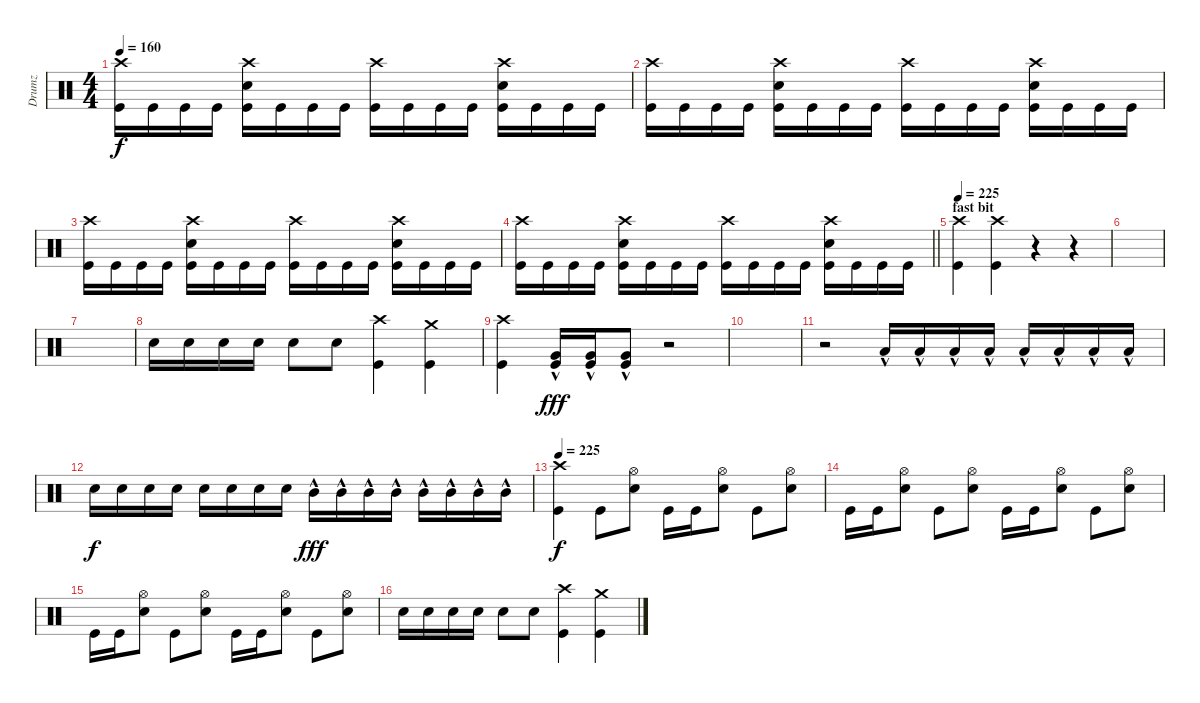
\track ("Drumz" "Drumz") {instrument percussion}
\staff {score}
\articulation defaults
\ts (4 4)
\tempo 160
\clef neutral
\ks c
("Crash high (hit)" "Kick (hit)").16{dy f} "Kick (hit)".16 "Kick (hit)".16 "Kick (hit)".16 ("Crash high (hit)" "Electric Snare (hit)" "Kick (hit)").16 "Kick (hit)".16 "Kick (hit)".16 "Kick (hit)".16 ("Crash high (hit)" "Kick (hit)").16 "Kick (hit)".16 "Kick (hit)".16 "Kick (hit)".16 ("Crash high (hit)" "Electric Snare (hit)" "Kick (hit)").16 "Kick (hit)".16 "Kick (hit)".16 "Kick (hit)".16 |
("Crash high (hit)" "Kick (hit)").16 "Kick (hit)".16 "Kick (hit)".16 "Kick (hit)".16 ("Crash high (hit)" "Electric Snare (hit)" "Kick (hit)").16 "Kick (hit)".16 "Kick (hit)".16 "Kick (hit)".16 ("Crash high (hit)" "Kick (hit)").16 "Kick (hit)".16 "Kick (hit)".16 "Kick (hit)".16 ("Crash high (hit)" "Electric Snare (hit)" "Kick (hit)").16 "Kick (hit)".16 "Kick (hit)".16 "Kick (hit)".16 |
("Crash high (hit)" "Kick (hit)").16 "Kick (hit)".16 "Kick (hit)".16 "Kick (hit)".16 ("Crash high (hit)" "Electric Snare (hit)" "Kick (hit)").16 "Kick (hit)".16 "Kick (hit)".16 "Kick (hit)".16 ("Crash high (hit)" "Kick (hit)").16 "Kick (hit)".16 "Kick (hit)".16 "Kick (hit)".16 ("Crash high (hit)" "Electric Snare (hit)" "Kick (hit)").16 "Kick (hit)".16 "Kick (hit)".16 "Kick (hit)".16 |
\barLineRight lightlight
("Crash high (hit)" "Kick (hit)").16 "Kick (hit)".16 "Kick (hit)".16 "Kick (hit)".16 ("Crash high (hit)" "Electric Snare (hit)" "Kick (hit)").16 "Kick (hit)".16 "Kick (hit)".16 "Kick (hit)".16 ("Crash high (hit)" "Kick (hit)").16 "Kick (hit)".16 "Kick (hit)".16 "Kick (hit)".16 ("Crash high (hit)" "Electric Snare (hit)" "Kick (hit)").16 "Kick (hit)".16 "Kick (hit)".16 "Kick (hit)".16 |
\section ("" "fast bit")
\tempo 225
("Crash high (hit)" "Kick (hit)").4 ("Crash high (hit)" "Kick (hit)").4 r.4{volume 0} r.4 |
|
|
"Electric Snare (hit)".16{volume 13} "Electric Snare (hit)".16 "Electric Snare (hit)".16 "Electric Snare (hit)".16 "Electric Snare (hit)".8 "Electric Snare (hit)".8 ("Crash high (hit)" "Kick (hit)").4 ("Crash medium (hit)" "Kick (hit)").4 |
("Crash high (hit)" "Kick (hit)").4 ("Very Low Tom (hit)"{hac} "Kick (hit)").16{dy fff} ("Very Low Tom (hit)"{hac} "Kick (hit)").16 ("Very Low Tom (hit)"{hac} "Kick (hit)").8 r.2 |
|
r.2 "Low Tom (hit)"{hac}.16 "Low Tom (hit)"{hac}.16 "Low Tom (hit)"{hac}.16 "Low Tom (hit)"{hac}.16 "Low Tom (hit)"{hac}.16 "Low Tom (hit)"{hac}.16 "Low Tom (hit)"{hac}.16 "Low Tom (hit)"{hac}.16 |
"Electric Snare (hit)".16{dy f} "Electric Snare (hit)".16 "Electric Snare (hit)".16 "Electric Snare (hit)".16 "Electric Snare (hit)".16 "Electric Snare (hit)".16 "Electric Snare (hit)".16 "Electric Snare (hit)".16 "Mid Tom (hit)"{hac}.16{dy fff} "Mid Tom (hit)"{hac}.16 "Mid Tom (hit)"{hac}.16 "Mid Tom (hit)"{hac}.16 "Mid Tom (hit)"{hac}.16 "Mid Tom (hit)"{hac}.16 "Mid Tom (hit)"{hac}.16 "Mid Tom (hit)"{hac}.16 |
\tempo 225
("Crash high (hit)" "Kick (hit)").4{dy f} "Kick (hit)".8 ("Hi-Hat (open)" "Electric Snare (hit)").8 "Kick (hit)".16 "Kick (hit)".16 ("Hi-Hat (open)" "Electric Snare (hit)").8 "Kick (hit)".8 ("Hi-Hat (open)" "Electric Snare (hit)").8 |
"Kick (hit)".16 "Kick (hit)".16 ("Hi-Hat (open)" "Electric Snare (hit)").8 "Kick (hit)".8 ("Hi-Hat (open)" "Electric Snare (hit)").8 "Kick (hit)".16 "Kick (hit)".16 ("Hi-Hat (open)" "Electric Snare (hit)").8 "Kick (hit)".8 ("Hi-Hat (open)" "Electric Snare (hit)").8 |
"Kick (hit)".16 "Kick (hit)".16 ("Hi-Hat (open)" "Electric Snare (hit)").8 "Kick (hit)".8 ("Hi-Hat (open)" "Electric Snare (hit)").8 "Kick (hit)".16 "Kick (hit)".16 ("Hi-Hat (open)" "Electric Snare (hit)").8 "Kick (hit)".8 ("Hi-Hat (open)" "Electric Snare (hit)").8 |
"Electric Snare (hit)".16 "Electric Snare (hit)".16 "Electric Snare (hit)".16 "Electric Snare (hit)".16 "Electric Snare (hit)".8 "Electric Snare (hit)".8 ("Crash high (hit)" "Kick (hit)").4 ("Crash medium (hit)" "Kick (hit)").4
